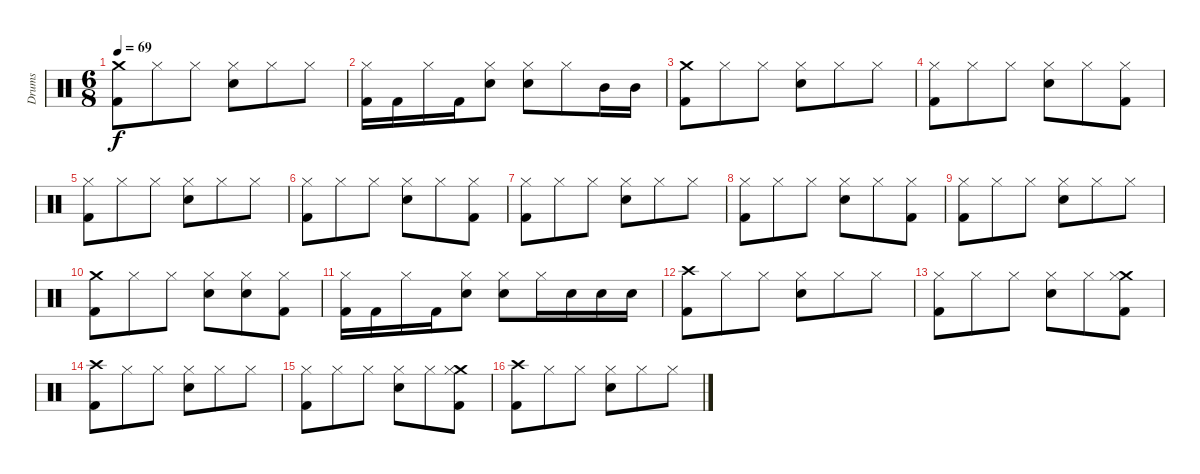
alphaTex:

\track ("Drums" "Drums") {instrument percussion}
\staff {score}
\articulation defaults
\ts (6 8)
\tempo 69
\clef neutral
\ks c
("Crash medium (hit)" "Kick (hit) 2").8{dy f} "Hi-Hat (closed)".8 "Hi-Hat (closed)".8 ("Hi-Hat (closed)" "Snare (hit) 2").8 "Hi-Hat (closed)".8 "Hi-Hat (closed)".8 |
("Hi-Hat (closed)" "Kick (hit) 2").16 "Kick (hit) 2".16 "Hi-Hat (closed)".16 "Kick (hit) 2".16 ("Hi-Hat (closed)" "Snare (hit) 2").8 ("Hi-Hat (closed)" "Snare (hit) 2").8 "Hi-Hat (closed)".8 "Mid Tom (hit)".16 "Mid Tom (hit)".16 |
("Crash medium (hit)" "Kick (hit) 2").8 "Hi-Hat (closed)".8 "Hi-Hat (closed)".8 ("Hi-Hat (closed)" "Snare (hit) 2").8 "Hi-Hat (closed)".8 "Hi-Hat (closed)".8 |
("Hi-Hat (closed)" "Kick (hit) 2").8 "Hi-Hat (closed)".8 "Hi-Hat (closed)".8 ("Hi-Hat (closed)" "Snare (hit) 2").8 "Hi-Hat (closed)".8 ("Hi-Hat (closed)" "Kick (hit) 2").8 |
("Hi-Hat (closed)" "Kick (hit) 2").8 "Hi-Hat (closed)".8 "Hi-Hat (closed)".8 ("Hi-Hat (closed)" "Snare (hit) 2").8 "Hi-Hat (closed)".8 "Hi-Hat (closed)".8 |
("Hi-Hat (closed)" "Kick (hit) 2").8 "Hi-Hat (closed)".8 "Hi-Hat (closed)".8 ("Hi-Hat (closed)" "Snare (hit) 2").8 "Hi-Hat (closed)".8 ("Hi-Hat (closed)" "Kick (hit) 2").8 |
("Hi-Hat (closed)" "Kick (hit) 2").8 "Hi-Hat (closed)".8 "Hi-Hat (closed)".8 ("Hi-Hat (closed)" "Snare (hit) 2").8 "Hi-Hat (closed)".8 "Hi-Hat (closed)".8 |
("Hi-Hat (closed)" "Kick (hit) 2").8 "Hi-Hat (closed)".8 "Hi-Hat (closed)".8 ("Hi-Hat (closed)" "Snare (hit) 2").8 "Hi-Hat (closed)".8 ("Hi-Hat (closed)" "Kick (hit) 2").8 |
("Hi-Hat (closed)" "Kick (hit) 2").8 "Hi-Hat (closed)".8 "Hi-Hat (closed)".8 ("Hi-Hat (closed)" "Snare (hit) 2").8 "Hi-Hat (closed)".8 "Hi-Hat (closed)".8 |
("Crash medium (hit)" "Kick (hit) 2").8 "Hi-Hat (closed)".8 "Hi-Hat (closed)".8 ("Hi-Hat (closed)" "Snare (hit) 2").8 ("Hi-Hat (closed)" "Snare (hit) 2").8 ("Hi-Hat (closed)" "Kick (hit) 2").8 |
("Hi-Hat (closed)" "Kick (hit) 2").16 "Kick (hit) 2".16 "Hi-Hat (closed)".16 "Kick (hit) 2".16 ("Hi-Hat (closed)" "Snare (hit) 2").8 ("Hi-Hat (closed)" "Snare (hit) 2").8 "Hi-Hat (closed)".16 "Snare (hit) 2".16 "Snare (hit) 2".16 "Snare (hit) 2".16 |
("Crash high (hit)" "Kick (hit) 2").8 "Hi-Hat (closed)".8 "Hi-Hat (closed)".8 ("Hi-Hat (closed)" "Snare (hit) 2").8 "Hi-Hat (closed)".8 "Hi-Hat (closed)".8 |
("Hi-Hat (closed)" "Kick (hit) 2").8 "Hi-Hat (closed)".8 "Hi-Hat (closed)".8 ("Hi-Hat (closed)" "Snare (hit) 2").8 "Hi-Hat (closed)".8 ("Crash medium (hit)" "Hi-Hat (closed)" "Kick (hit) 2").8 |
("Crash high (hit)" "Kick (hit) 2").8 "Hi-Hat (closed)".8 "Hi-Hat (closed)".8 ("Hi-Hat (closed)" "Snare (hit) 2").8 "Hi-Hat (closed)".8 "Hi-Hat (closed)".8 |
("Hi-Hat (closed)" "Kick (hit) 2").8 "Hi-Hat (closed)".8 "Hi-Hat (closed)".8 ("Hi-Hat (closed)" "Snare (hit) 2").8 "Hi-Hat (closed)".8 ("Crash medium (hit)" "Hi-Hat (closed)" "Kick (hit) 2").8 |
("Crash high (hit)" "Kick (hit) 2").8 "Hi-Hat (closed)".8 "Hi-Hat (closed)".8 ("Hi-Hat (closed)" "Snare (hit) 2").8 "Hi-Hat (closed)".8 "Hi-Hat (closed)".8
